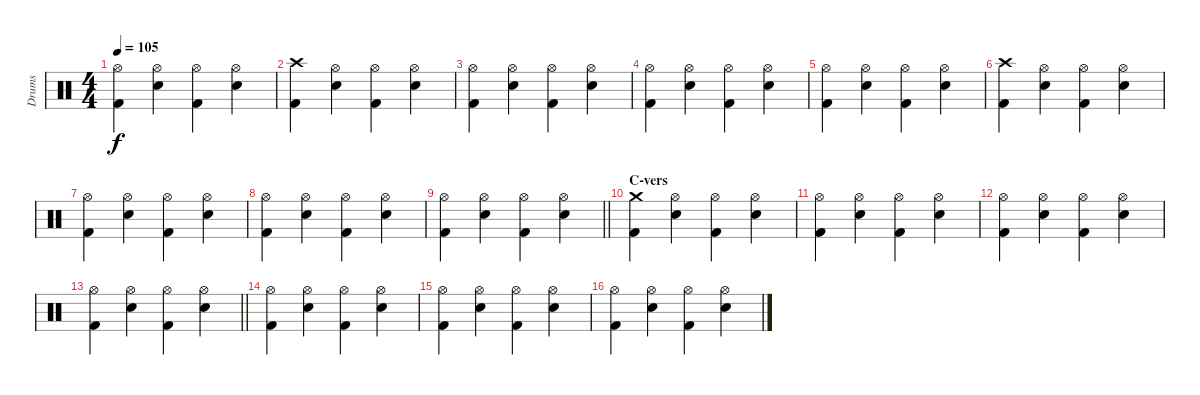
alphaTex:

\track ("Drums" "Drums") {instrument percussion}
\staff {score}
\articulation defaults
\ts (4 4)
\tempo 105
\clef neutral
\ks c
("Hi-Hat (open)" "Kick (hit) 2").4{dy f} ("Hi-Hat (open)" "Snare (hit) 2").4 ("Hi-Hat (open)" "Kick (hit) 2").4 ("Hi-Hat (open)" "Snare (hit) 2").4 |
("Crash high (hit)" "Kick (hit) 2").4 ("Hi-Hat (open)" "Snare (hit) 2").4 ("Hi-Hat (open)" "Kick (hit) 2").4 ("Hi-Hat (open)" "Snare (hit) 2").4 |
("Hi-Hat (open)" "Kick (hit) 2").4 ("Hi-Hat (open)" "Snare (hit) 2").4 ("Hi-Hat (open)" "Kick (hit) 2").4 ("Hi-Hat (open)" "Snare (hit) 2").4 |
("Hi-Hat (open)" "Kick (hit) 2").4 ("Hi-Hat (open)" "Snare (hit) 2").4 ("Hi-Hat (open)" "Kick (hit) 2").4 ("Hi-Hat (open)" "Snare (hit) 2").4 |
("Hi-Hat (open)" "Kick (hit) 2").4 ("Hi-Hat (open)" "Snare (hit) 2").4 ("Hi-Hat (open)" "Kick (hit) 2").4 ("Hi-Hat (open)" "Snare (hit) 2").4 |
("Crash high (hit)" "Kick (hit) 2").4 ("Hi-Hat (open)" "Snare (hit) 2").4 ("Hi-Hat (open)" "Kick (hit) 2").4 ("Hi-Hat (open)" "Snare (hit) 2").4 |
("Hi-Hat (open)" "Kick (hit) 2").4 ("Hi-Hat (open)" "Snare (hit) 2").4 ("Hi-Hat (open)" "Kick (hit) 2").4 ("Hi-Hat (open)" "Snare (hit) 2").4 |
("Hi-Hat (open)" "Kick (hit) 2").4 ("Hi-Hat (open)" "Snare (hit) 2").4 ("Hi-Hat (open)" "Kick (hit) 2").4 ("Hi-Hat (open)" "Snare (hit) 2").4 |
\barLineRight lightlight
("Hi-Hat (open)" "Kick (hit) 2").4 ("Hi-Hat (open)" "Snare (hit) 2").4 ("Hi-Hat (open)" "Kick (hit) 2").4 ("Hi-Hat (open)" "Snare (hit) 2").4 |
\section ("" "C-vers")
("Crash medium (hit)" "Kick (hit) 2").4 ("Hi-Hat (open)" "Snare (hit) 2").4 ("Hi-Hat (open)" "Kick (hit) 2").4 ("Hi-Hat (open)" "Snare (hit) 2").4 |
("Hi-Hat (open)" "Kick (hit) 2").4 ("Hi-Hat (open)" "Snare (hit) 2").4 ("Hi-Hat (open)" "Kick (hit) 2").4 ("Hi-Hat (open)" "Snare (hit) 2").4 |
("Hi-Hat (open)" "Kick (hit) 2").4 ("Hi-Hat (open)" "Snare (hit) 2").4 ("Hi-Hat (open)" "Kick (hit) 2").4 ("Hi-Hat (open)" "Snare (hit) 2").4 |
\barLineRight lightlight
("Hi-Hat (open)" "Kick (hit) 2").4 ("Hi-Hat (open)" "Snare (hit) 2").4 ("Hi-Hat (open)" "Kick (hit) 2").4 ("Hi-Hat (open)" "Snare (hit) 2").4 |
("Hi-Hat (open)" "Kick (hit) 2").4 ("Hi-Hat (open)" "Snare (hit) 2").4 ("Hi-Hat (open)" "Kick (hit) 2").4 ("Hi-Hat (open)" "Snare (hit) 2").4 |
("Hi-Hat (open)" "Kick (hit) 2").4 ("Hi-Hat (open)" "Snare (hit) 2").4 ("Hi-Hat (open)" "Kick (hit) 2").4 ("Hi-Hat (open)" "Snare (hit) 2").4 |
("Hi-Hat (open)" "Kick (hit) 2").4 ("Hi-Hat (open)" "Snare (hit) 2").4 ("Hi-Hat (open)" "Kick (hit) 2").4 ("Hi-Hat (open)" "Snare (hit) 2").4
